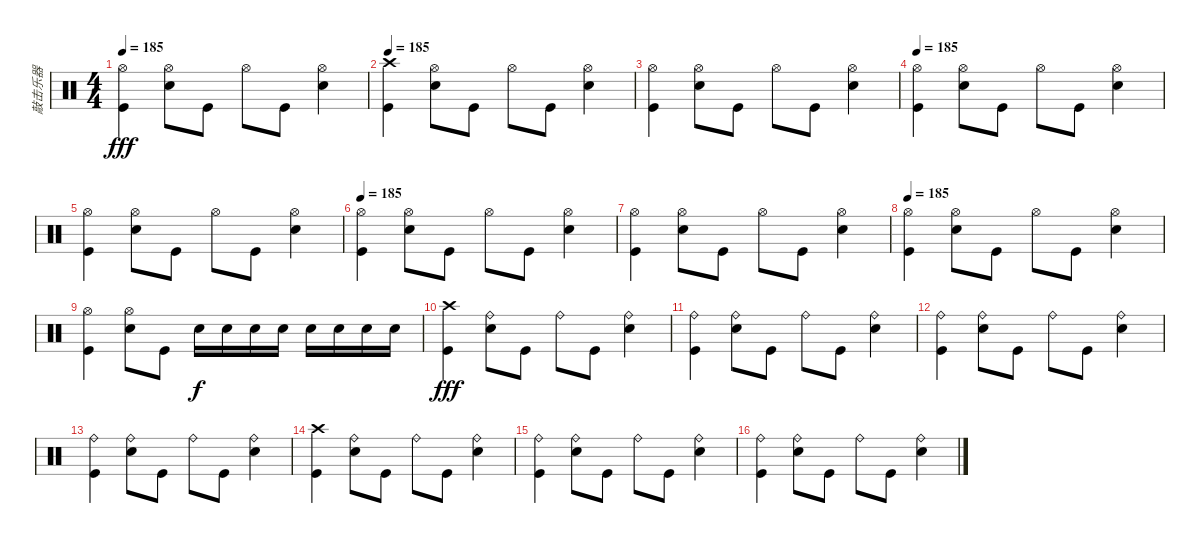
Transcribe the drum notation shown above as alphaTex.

\track ("敲击乐器" "敲击乐器") {instrument percussion}
\staff {score}
\articulation defaults
\ts (4 4)
\tempo 185
\clef neutral
\ks c
("Hi-Hat (open)" "Kick (hit)").4{dy fff} ("Hi-Hat (open)" "Snare (hit) 2").8 "Kick (hit)".8 "Hi-Hat (open)".8 "Kick (hit)".8 ("Hi-Hat (open)" "Snare (hit) 2").4 |
\tempo 185
("Crash high (hit)" "Kick (hit)").4 ("Hi-Hat (open)" "Snare (hit) 2").8 "Kick (hit)".8 "Hi-Hat (open)".8 "Kick (hit)".8 ("Hi-Hat (open)" "Snare (hit) 2").4 |
("Hi-Hat (open)" "Kick (hit)").4 ("Hi-Hat (open)" "Snare (hit) 2").8 "Kick (hit)".8 "Hi-Hat (open)".8 "Kick (hit)".8 ("Hi-Hat (open)" "Snare (hit) 2").4 |
\tempo 185
("Hi-Hat (open)" "Kick (hit)").4 ("Hi-Hat (open)" "Snare (hit) 2").8 "Kick (hit)".8 "Hi-Hat (open)".8 "Kick (hit)".8 ("Hi-Hat (open)" "Snare (hit) 2").4 |
("Hi-Hat (open)" "Kick (hit)").4 ("Hi-Hat (open)" "Snare (hit) 2").8 "Kick (hit)".8 "Hi-Hat (open)".8 "Kick (hit)".8 ("Hi-Hat (open)" "Snare (hit) 2").4 |
\tempo 185
("Hi-Hat (open)" "Kick (hit)").4 ("Hi-Hat (open)" "Snare (hit) 2").8 "Kick (hit)".8 "Hi-Hat (open)".8 "Kick (hit)".8 ("Hi-Hat (open)" "Snare (hit) 2").4 |
("Hi-Hat (open)" "Kick (hit)").4 ("Hi-Hat (open)" "Snare (hit) 2").8 "Kick (hit)".8 "Hi-Hat (open)".8 "Kick (hit)".8 ("Hi-Hat (open)" "Snare (hit) 2").4 |
\tempo 185
("Hi-Hat (open)" "Kick (hit)").4 ("Hi-Hat (open)" "Snare (hit) 2").8 "Kick (hit)".8 "Hi-Hat (open)".8 "Kick (hit)".8 ("Hi-Hat (open)" "Snare (hit) 2").4 |
("Hi-Hat (open)" "Kick (hit)").4 ("Hi-Hat (open)" "Snare (hit) 2").8 "Kick (hit)".8 "Snare (hit) 2".16{dy f} "Snare (hit) 2".16 "Snare (hit) 2".16 "Snare (hit) 2".16 "Snare (hit) 2".16 "Snare (hit) 2".16 "Snare (hit) 2".16 "Snare (hit) 2".16 |
("Crash high (hit)" "Kick (hit)").4{dy fff} ("Ride (bell)" "Snare (hit) 2").8 "Kick (hit)".8 "Ride (bell)".8 "Kick (hit)".8 ("Ride (bell)" "Snare (hit) 2").4 |
("Ride (bell)" "Kick (hit)").4 ("Ride (bell)" "Snare (hit) 2").8 "Kick (hit)".8 "Ride (bell)".8 "Kick (hit)".8 ("Ride (bell)" "Snare (hit) 2").4 |
("Ride (bell)" "Kick (hit)").4 ("Ride (bell)" "Snare (hit) 2").8 "Kick (hit)".8 "Ride (bell)".8 "Kick (hit)".8 ("Ride (bell)" "Snare (hit) 2").4 |
("Ride (bell)" "Kick (hit)").4 ("Ride (bell)" "Snare (hit) 2").8 "Kick (hit)".8 "Ride (bell)".8 "Kick (hit)".8 ("Ride (bell)" "Snare (hit) 2").4 |
("Crash high (hit)" "Kick (hit)").4 ("Ride (bell)" "Snare (hit) 2").8 "Kick (hit)".8 "Ride (bell)".8 "Kick (hit)".8 ("Ride (bell)" "Snare (hit) 2").4 |
("Ride (bell)" "Kick (hit)").4 ("Ride (bell)" "Snare (hit) 2").8 "Kick (hit)".8 "Ride (bell)".8 "Kick (hit)".8 ("Ride (bell)" "Snare (hit) 2").4 |
("Ride (bell)" "Kick (hit)").4 ("Ride (bell)" "Snare (hit) 2").8 "Kick (hit)".8 "Ride (bell)".8 "Kick (hit)".8 ("Ride (bell)" "Snare (hit) 2").4
